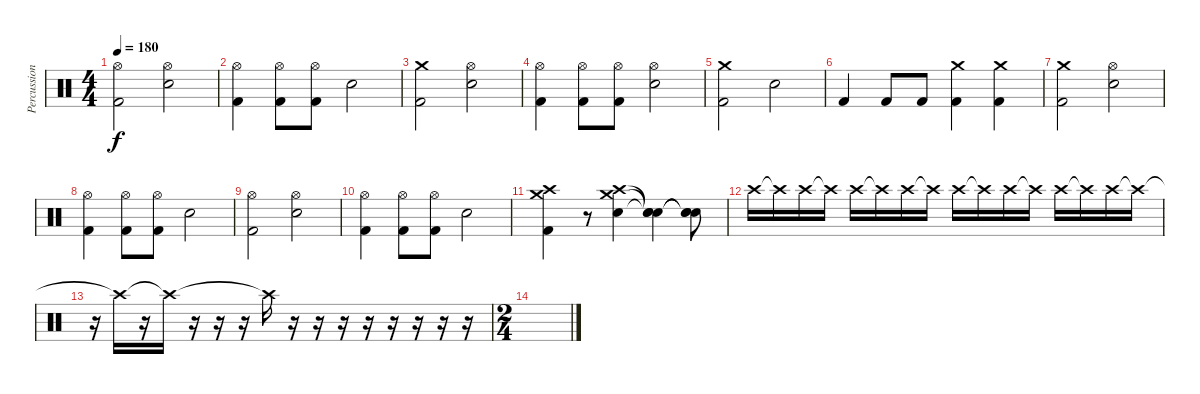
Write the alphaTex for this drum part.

\track ("Percussion" "Percussion") {instrument percussion}
\staff {score}
\articulation defaults
\ts (4 4)
\tempo 180
\clef neutral
\ks c
("Hi-Hat (open)" "Kick (hit) 2").2{dy f} ("Hi-Hat (open)" "Snare (hit) 2").2 |
("Hi-Hat (open)" "Kick (hit) 2").4 ("Hi-Hat (open)" "Kick (hit) 2").8 ("Hi-Hat (open)" "Kick (hit) 2").8 "Snare (hit) 2".2 |
("Crash medium (hit)" "Kick (hit) 2").2 ("Hi-Hat (open)" "Snare (hit) 2").2 |
("Hi-Hat (open)" "Kick (hit) 2").4 ("Hi-Hat (open)" "Kick (hit) 2").8 ("Hi-Hat (open)" "Kick (hit) 2").8 ("Hi-Hat (open)" "Snare (hit) 2").2 |
("Crash medium (hit)" "Kick (hit) 2").2 "Snare (hit) 2".2 |
"Kick (hit) 2".4 "Kick (hit) 2".8 "Kick (hit) 2".8 ("Crash medium (hit)" "Kick (hit) 2").4 ("Crash medium (hit)" "Kick (hit) 2").4 |
("Crash medium (hit)" "Kick (hit) 2").2 ("Hi-Hat (open)" "Snare (hit) 2").2 |
("Hi-Hat (open)" "Kick (hit) 2").4 ("Hi-Hat (open)" "Kick (hit) 2").8 ("Hi-Hat (open)" "Kick (hit) 2").8 "Snare (hit) 2".2 |
("Hi-Hat (open)" "Kick (hit) 2").2 ("Hi-Hat (open)" "Snare (hit) 2").2 |
("Hi-Hat (open)" "Kick (hit) 2").4 ("Hi-Hat (open)" "Kick (hit) 2").8 ("Hi-Hat (open)" "Kick (hit) 2").8 "Snare (hit) 2".2 |
("Crash medium (hit)" "Crash high (hit)" "Kick (hit) 2").4 r.8 ("Crash medium (hit)" "Crash high (hit)" "Snare (hit) 2").4 ("Snare (hit)"{t} "Snare (hit)"{t} "Snare (hit)"{t}).4 ("Snare (hit)"{t} "Snare (hit)"{t} "Snare (hit)"{t}).8 |
"Crash high (hit)".16{volume 16} "Crash high (hit)"{t}.16 "Crash high (hit)".16 "Crash high (hit)"{t}.16 "Crash high (hit)".16 "Crash high (hit)"{t}.16 "Crash high (hit)".16 "Crash high (hit)"{t}.16 "Crash high (hit)".16 "Crash high (hit)"{t}.16 "Crash high (hit)".16 "Crash high (hit)"{t}.16 "Crash high (hit)".16 "Crash high (hit)"{t}.16 "Crash high (hit)".16 "Crash high (hit)"{t}.16 |
r.16 "Crash high (hit)"{t}.16 r.16 "Crash high (hit)"{t}.16 r.16 r.16 r.16 "Crash high (hit)"{t}.16 r.16 r.16 r.16 r.16 r.16 r.16 r.16 r.16 |
\ts (2 4)
